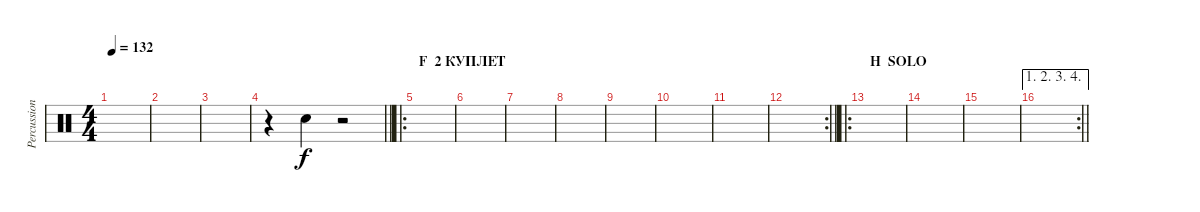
\track ("Percussions" "Percussion") {instrument percussion}
\staff {score}
\articulation defaults
\ts (4 4)
\tempo 132
\clef neutral
\ks c
|
|
|
\barLineRight lightlight
r.4 "Snare (hit) 2".4 r.2 |
\ro
\section ("" "F  2 КУПЛЕТ")
|
|
|
|
|
|
|
\rc 2
\barLineRight lightlight
|
\ro
\section ("" "H  SOLO")
|
|
|
\ae (1 2 3 4)
\rc 2
\barLineRight lightlight
